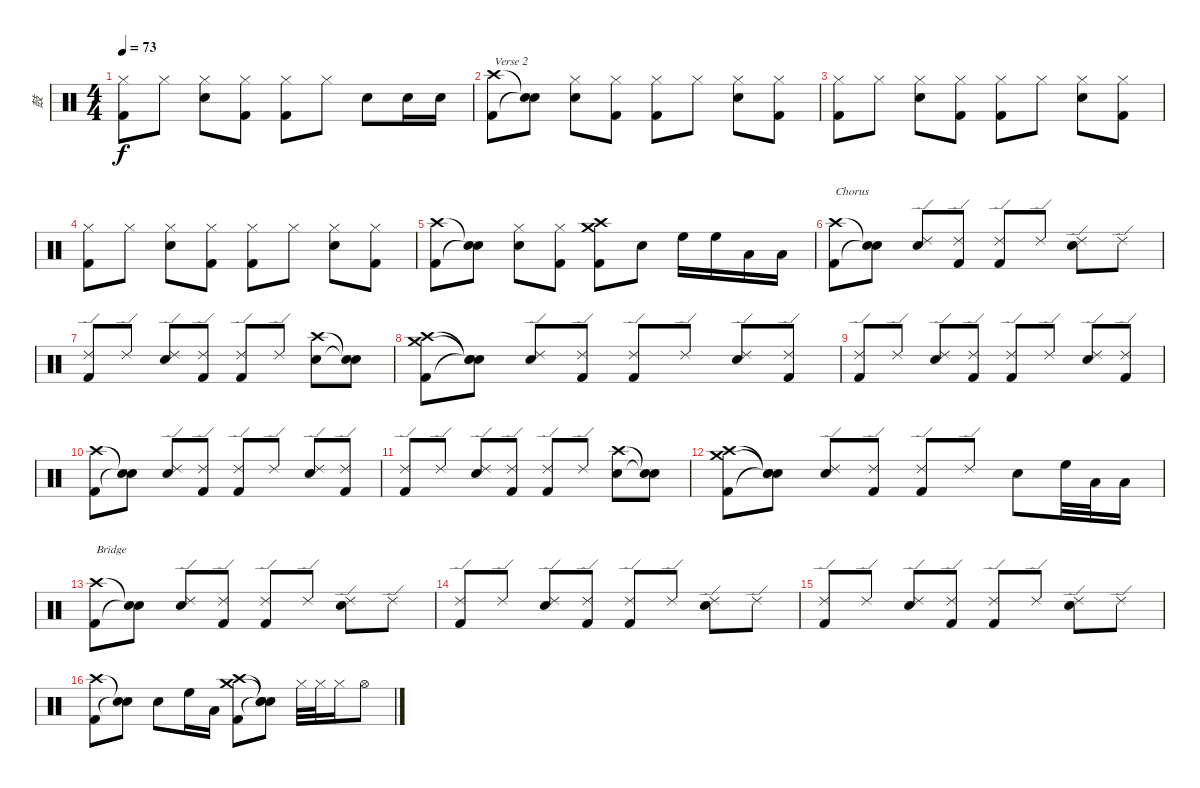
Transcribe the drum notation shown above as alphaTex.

\track ("鼓" "鼓") {instrument percussion}
\staff {score}
\articulation defaults
\ts (4 4)
\tempo 73
\clef neutral
\ks c
("Hi-Hat (closed)" "Kick (hit) 2").8{dy f} "Hi-Hat (closed)".8 ("Hi-Hat (closed)" "Electric Snare (hit)").8 ("Hi-Hat (closed)" "Kick (hit) 2").8 ("Hi-Hat (closed)" "Kick (hit) 2").8 "Hi-Hat (closed)".8 "Electric Snare (hit)".8 "Electric Snare (hit)".16 "Electric Snare (hit)".16 |
("Crash high (hit)" "Kick (hit) 2").8{txt "Verse 2"} ("Snare (hit)"{t} "Snare (hit)"{t}).8 ("Hi-Hat (closed)" "Electric Snare (hit)").8 ("Hi-Hat (closed)" "Kick (hit) 2").8 ("Hi-Hat (closed)" "Kick (hit) 2").8 "Hi-Hat (closed)".8 ("Hi-Hat (closed)" "Electric Snare (hit)").8 ("Hi-Hat (closed)" "Kick (hit) 2").8 |
("Hi-Hat (closed)" "Kick (hit) 2").8 "Hi-Hat (closed)".8 ("Hi-Hat (closed)" "Electric Snare (hit)").8 ("Hi-Hat (closed)" "Kick (hit) 2").8 ("Hi-Hat (closed)" "Kick (hit) 2").8 "Hi-Hat (closed)".8 ("Hi-Hat (closed)" "Electric Snare (hit)").8 ("Hi-Hat (closed)" "Kick (hit) 2").8 |
("Hi-Hat (closed)" "Kick (hit) 2").8 "Hi-Hat (closed)".8 ("Hi-Hat (closed)" "Electric Snare (hit)").8 ("Hi-Hat (closed)" "Kick (hit) 2").8 ("Hi-Hat (closed)" "Kick (hit) 2").8 "Hi-Hat (closed)".8 ("Hi-Hat (closed)" "Electric Snare (hit)").8 ("Hi-Hat (closed)" "Kick (hit) 2").8 |
("Crash high (hit)" "Kick (hit) 2").8 ("Snare (hit)"{t} "Snare (hit)"{t}).8 ("Hi-Hat (closed)" "Electric Snare (hit)").8 ("Hi-Hat (closed)" "Kick (hit) 2").8 ("Crash high (hit)" "Crash medium (hit)" "Kick (hit) 2").8 "Electric Snare (hit)".8 "High Floor Tom (hit)".16 "High Floor Tom (hit)".16 "Low Tom (hit)".16 "Low Tom (hit)".16 |
("Crash high (hit)" "Kick (hit) 2").8{txt "Chorus"} ("Snare (hit)"{t} "Snare (hit)"{t}).8 ("Ride (edge) 2" "Electric Snare (hit)").8 ("Ride (edge) 2" "Kick (hit) 2").8 ("Ride (edge) 2" "Kick (hit) 2").8 "Ride (edge) 2".8 ("Ride (edge) 2" "Electric Snare (hit)").8 "Ride (edge) 2".8 |
("Ride (edge) 2" "Kick (hit) 2").8 "Ride (edge) 2".8 ("Ride (edge) 2" "Electric Snare (hit)").8 ("Ride (edge) 2" "Kick (hit) 2").8 ("Ride (edge) 2" "Kick (hit) 2").8 "Ride (edge) 2".8 ("Crash high (hit)" "Electric Snare (hit)").8 ("Snare (hit)"{t} "Snare (hit)"{t}).8 |
("Crash high (hit)" "Crash medium (hit)" "Kick (hit) 2").8 ("Snare (hit)"{t} "Snare (hit)"{t} "Snare (hit)"{t}).8 ("Ride (edge) 2" "Electric Snare (hit)").8 ("Ride (edge) 2" "Kick (hit) 2").8 ("Ride (edge) 2" "Kick (hit) 2").8 "Ride (edge) 2".8 ("Ride (edge) 2" "Electric Snare (hit)").8 ("Ride (edge) 2" "Kick (hit) 2").8 |
("Ride (edge) 2" "Kick (hit) 2").8 "Ride (edge) 2".8 ("Ride (edge) 2" "Electric Snare (hit)").8 ("Ride (edge) 2" "Kick (hit) 2").8 ("Ride (edge) 2" "Kick (hit) 2").8 "Ride (edge) 2".8 ("Ride (edge) 2" "Electric Snare (hit)").8 ("Ride (edge) 2" "Kick (hit) 2").8 |
("Crash high (hit)" "Kick (hit) 2").8 ("Snare (hit)"{t} "Snare (hit)"{t}).8 ("Ride (edge) 2" "Electric Snare (hit)").8 ("Ride (edge) 2" "Kick (hit) 2").8 ("Ride (edge) 2" "Kick (hit) 2").8 "Ride (edge) 2".8 ("Ride (edge) 2" "Electric Snare (hit)").8 ("Ride (edge) 2" "Kick (hit) 2").8 |
("Ride (edge) 2" "Kick (hit) 2").8 "Ride (edge) 2".8 ("Ride (edge) 2" "Electric Snare (hit)").8 ("Ride (edge) 2" "Kick (hit) 2").8 ("Ride (edge) 2" "Kick (hit) 2").8 "Ride (edge) 2".8 ("Crash high (hit)" "Electric Snare (hit)").8 ("Snare (hit)"{t} "Snare (hit)"{t}).8 |
("Crash high (hit)" "Crash medium (hit)" "Kick (hit) 2").8 ("Snare (hit)"{t} "Snare (hit)"{t} "Snare (hit)"{t}).8 ("Ride (edge) 2" "Electric Snare (hit)").8 ("Ride (edge) 2" "Kick (hit) 2").8 ("Ride (edge) 2" "Kick (hit) 2").8 "Ride (edge) 2".8 "Electric Snare (hit)".8 "High Floor Tom (hit)".32 "Low Tom (hit)".32 "Low Tom (hit)".16 |
("Crash high (hit)" "Kick (hit) 2").8{txt "Bridge"} ("Snare (hit)"{t} "Snare (hit)"{t}).8 ("Ride (edge) 2" "Electric Snare (hit)").8 ("Ride (edge) 2" "Kick (hit) 2").8 ("Ride (edge) 2" "Kick (hit) 2").8 "Ride (edge) 2".8 ("Ride (edge) 2" "Electric Snare (hit)").8 "Ride (edge) 2".8 |
("Ride (edge) 2" "Kick (hit) 2").8 "Ride (edge) 2".8 ("Ride (edge) 2" "Electric Snare (hit)").8 ("Ride (edge) 2" "Kick (hit) 2").8 ("Ride (edge) 2" "Kick (hit) 2").8 "Ride (edge) 2".8 ("Ride (edge) 2" "Electric Snare (hit)").8 "Ride (edge) 2".8 |
("Ride (edge) 2" "Kick (hit) 2").8 "Ride (edge) 2".8 ("Ride (edge) 2" "Electric Snare (hit)").8 ("Ride (edge) 2" "Kick (hit) 2").8 ("Ride (edge) 2" "Kick (hit) 2").8 "Ride (edge) 2".8 ("Ride (edge) 2" "Electric Snare (hit)").8 "Ride (edge) 2".8 |
("Crash high (hit)" "Kick (hit) 2").8 ("Snare (hit)"{t} "Snare (hit)"{t}).8 "Electric Snare (hit)".8 "High Floor Tom (hit)".16 "Low Tom (hit)".16 ("Crash high (hit)" "Crash medium (hit)" "Kick (hit) 2").8 ("Snare (hit)"{t} "Snare (hit)"{t} "Snare (hit)"{t}).8 "Hi-Hat (closed)".32 "Hi-Hat (closed)".32 "Hi-Hat (closed)".16 "Hi-Hat (open)".8
